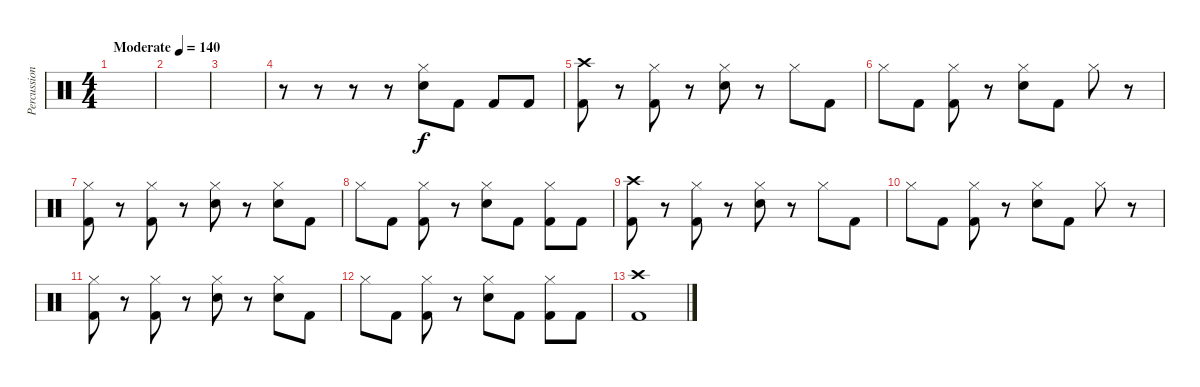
\track ("Percussions" "Percussion") {instrument percussion}
\staff {score}
\articulation defaults
\ts (4 4)
\tempo (140 "Moderate")
\clef neutral
\ks c
|
|
|
r.8 r.8 r.8 r.8 ("Hi-Hat (closed)" "Snare (hit) 2").8 "Kick (hit) 2".8 "Kick (hit) 2".8 "Kick (hit) 2".8 |
("Crash high (hit)" "Kick (hit) 2").8 r.8 ("Hi-Hat (closed)" "Kick (hit) 2").8 r.8 ("Hi-Hat (closed)" "Snare (hit) 2").8 r.8 "Hi-Hat (closed)".8 "Kick (hit) 2".8 |
"Hi-Hat (closed)".8 "Kick (hit) 2".8 ("Hi-Hat (closed)" "Kick (hit) 2").8 r.8 ("Hi-Hat (closed)" "Snare (hit) 2").8 "Kick (hit) 2".8 "Hi-Hat (closed)".8 r.8 |
("Hi-Hat (closed)" "Kick (hit) 2").8 r.8 ("Hi-Hat (closed)" "Kick (hit) 2").8 r.8 ("Hi-Hat (closed)" "Snare (hit) 2").8 r.8 ("Hi-Hat (closed)" "Snare (hit) 2").8 "Kick (hit) 2".8 |
"Hi-Hat (closed)".8 "Kick (hit) 2".8 ("Hi-Hat (closed)" "Kick (hit) 2").8 r.8 ("Hi-Hat (closed)" "Snare (hit) 2").8 "Kick (hit) 2".8 ("Hi-Hat (closed)" "Kick (hit) 2").8 "Kick (hit) 2".8 |
("Crash high (hit)" "Kick (hit) 2").8 r.8 ("Hi-Hat (closed)" "Kick (hit) 2").8 r.8 ("Hi-Hat (closed)" "Snare (hit) 2").8 r.8 "Hi-Hat (closed)".8 "Kick (hit) 2".8 |
"Hi-Hat (closed)".8 "Kick (hit) 2".8 ("Hi-Hat (closed)" "Kick (hit) 2").8 r.8 ("Hi-Hat (closed)" "Snare (hit) 2").8 "Kick (hit) 2".8 "Hi-Hat (closed)".8 r.8 |
("Hi-Hat (closed)" "Kick (hit) 2").8 r.8 ("Hi-Hat (closed)" "Kick (hit) 2").8 r.8 ("Hi-Hat (closed)" "Snare (hit) 2").8 r.8 ("Hi-Hat (closed)" "Snare (hit) 2").8 "Kick (hit) 2".8 |
"Hi-Hat (closed)".8 "Kick (hit) 2".8 ("Hi-Hat (closed)" "Kick (hit) 2").8 r.8 ("Hi-Hat (closed)" "Snare (hit) 2").8 "Kick (hit) 2".8 ("Hi-Hat (closed)" "Kick (hit) 2").8 "Kick (hit) 2".8 |
("Crash high (hit)" "Kick (hit) 2").1
